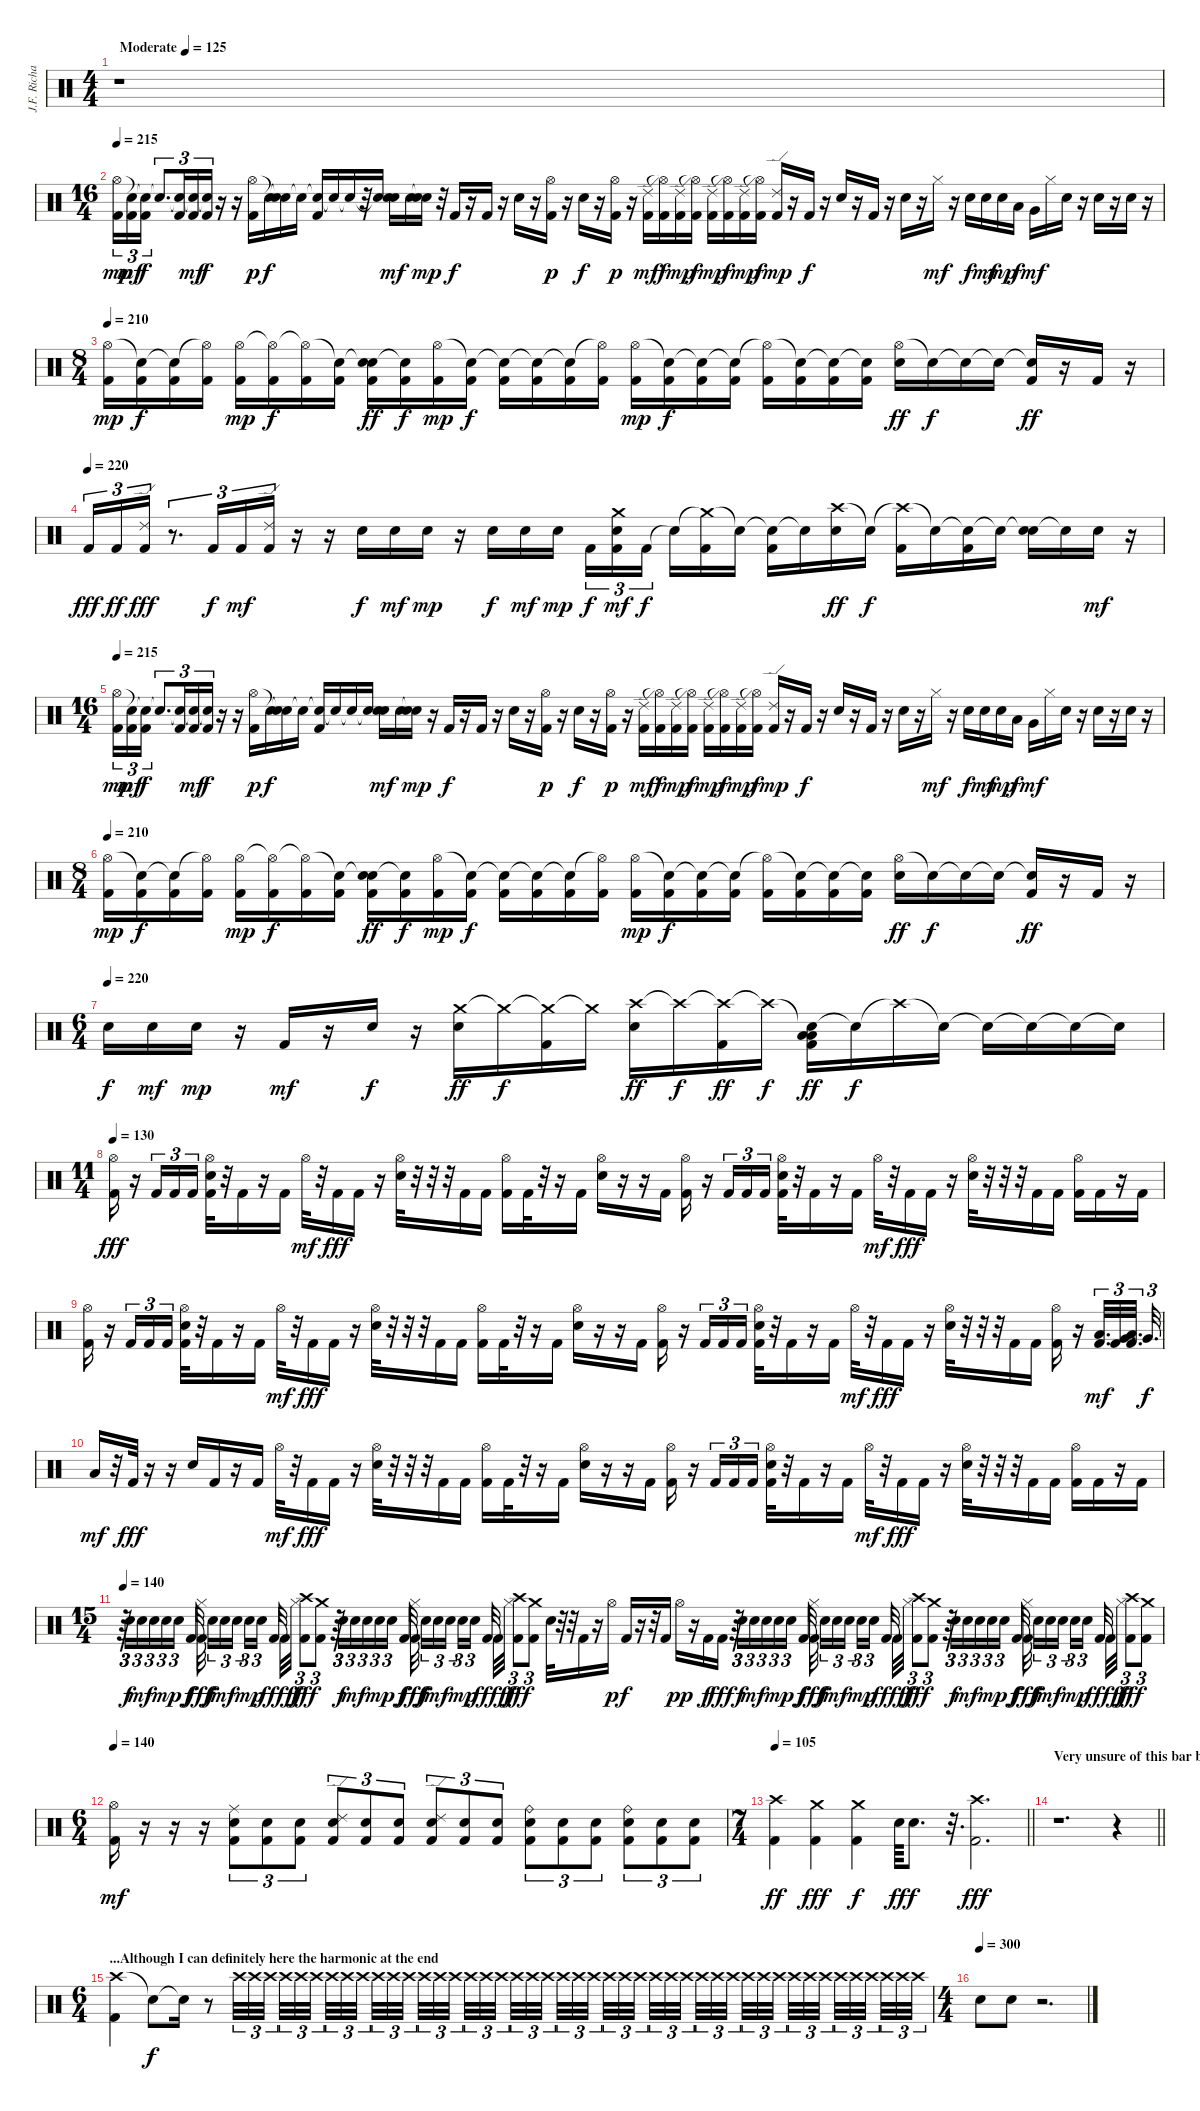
\track ("J.F. Richards" "J.F. Richa") {instrument percussion}
\staff {score}
\articulation defaults
\ts (4 4)
\tempo (125 "Moderate")
\clef neutral
\ks c
r.1{dy mp} |
\ts (16 4)
\tempo 215
("Hi-Hat (open)" "Kick (hit) 2").16{tu (3 2)} ("Snare (hit)"{t} "Kick (hit) 2").16{tu (3 2) dy mf} ("Snare (hit)"{t} "Kick (hit) 2").16{tu (3 2) dy f} "Snare (hit)"{t}.8{d tu (3 2)} ("Snare (hit)"{t} "Kick (hit) 2").16{tu (3 2)} ("Snare (hit)"{t} "Kick (hit) 2").16{tu (3 2) dy mf} ("Snare (hit)"{t} "Kick (hit) 2").16{tu (3 2) dy f} r.16 r.16 ("Hi-Hat (open)" "Kick (hit) 2").16{dy p} "Snare (hit)"{t}.16{dy f} ("Snare (hit)"{t} "Electric Snare (hit)").16 "Snare (hit)"{t}.16 ("Snare (hit)"{t} "Kick (hit) 2").16 "Snare (hit)"{t}.16 "Snare (hit)"{t}.16 r.32 ("Snare (hit)"{t} "Electric Snare (hit)").16 "Electric Snare (hit)".16{dy mf} "Electric Snare (hit)".16 ("Snare (hit)"{t} "Electric Snare (hit)").16{dy mp} r.32 "Kick (hit) 2".16{dy f} r.16 "Kick (hit) 2".16 r.16 "Electric Snare (hit)".16 r.16 ("Hi-Hat (open)" "Kick (hit) 2").16{dy p} r.16 "Electric Snare (hit)".16{dy f} r.16 ("Hi-Hat (open)" "Kick (hit) 2").16{dy p} r.16 ("Ride (edge) 2" "Kick (hit) 2").16{dy mf} ("Hi-Hat (open)"{t} "Kick (hit) 2").16{dy f} ("Ride (edge) 2" "Kick (hit) 2").16{dy mp} ("Hi-Hat (open)"{t} "Kick (hit) 2").16{dy f} ("Ride (edge) 2" "Kick (hit) 2").16{dy mp} ("Hi-Hat (open)"{t} "Kick (hit) 2").16{dy f} ("Ride (edge) 2" "Kick (hit) 2").16{dy mp} ("Hi-Hat (open)"{t} "Kick (hit) 2").16{dy f} ("Ride (edge) 2" "Kick (hit) 2").16{dy mp} r.16 "Kick (hit) 2".16{dy f} r.16 "Electric Snare (hit)".16 r.16 "Kick (hit) 2".16 r.16 "Electric Snare (hit)".16 r.16 "Hi-Hat (closed)".16{dy mf} r.16 "Electric Snare (hit)".16{dy f} "Electric Snare (hit)".16{dy mf} "Electric Snare (hit)".16{dy mp} "Low Tom (hit)".16{dy f} "Very Low Tom (hit)".16{dy mf} "Hi-Hat (closed)".16 "Electric Snare (hit)".16 r.16 "Electric Snare (hit)".16 r.16 "Electric Snare (hit)".16 r.16 |
\ts (8 4)
\tempo 210
("Hi-Hat (open)" "Kick (hit) 2").16{dy mp} ("Snare (hit)"{t} "Kick (hit) 2").16{dy f} ("Snare (hit)"{t} "Kick (hit) 2").16 ("Hi-Hat (open)"{t} "Kick (hit) 2").16 ("Hi-Hat (open)" "Kick (hit) 2").16{dy mp} ("Hi-Hat (open)"{t} "Kick (hit) 2").16{dy f} ("Hi-Hat (open)"{t} "Kick (hit) 2").16 ("Snare (hit)"{t} "Kick (hit) 2").16 ("Snare (hit)"{t} "Electric Snare (hit)" "Kick (hit) 2").16{dy ff} ("Snare (hit)"{t} "Kick (hit) 2").16{dy f} ("Hi-Hat (open)" "Kick (hit) 2").16{dy mp} ("Snare (hit)"{t} "Kick (hit) 2").16{dy f} ("Snare (hit)"{t} "Kick (hit) 2").16 ("Snare (hit)"{t} "Kick (hit) 2").16 ("Snare (hit)"{t} "Kick (hit) 2").16 ("Hi-Hat (open)"{t} "Kick (hit) 2").16 ("Hi-Hat (open)" "Kick (hit) 2").16{dy mp} ("Snare (hit)"{t} "Kick (hit) 2").16{dy f} ("Snare (hit)"{t} "Kick (hit) 2").16 ("Snare (hit)"{t} "Kick (hit) 2").16 ("Hi-Hat (open)"{t} "Kick (hit) 2").16 ("Snare (hit)"{t} "Kick (hit) 2").16 ("Snare (hit)"{t} "Kick (hit) 2").16 ("Snare (hit)"{t} "Kick (hit) 2").16 ("Hi-Hat (open)" "Electric Snare (hit)").16{dy ff} "Snare (hit)"{t}.16{dy f} "Snare (hit)"{t}.16 "Snare (hit)"{t}.16 ("Snare (hit)"{t} "Kick (hit) 2").16{dy ff} r.16 "Kick (hit) 2".16 r.16 |
\tempo (220)
"Kick (hit) 2".16{tu (3 2) dy fff} "Kick (hit) 2".16{tu (3 2) dy ff} ("Ride (edge) 2" "Kick (hit) 2").16{tu (3 2) dy fff} r.8{d tu (3 2)} "Kick (hit) 2".16{tu (3 2) dy f} "Kick (hit) 2".16{tu (3 2) dy mf} ("Ride (edge) 2" "Kick (hit) 2").16{tu (3 2)} r.16 r.16 "Electric Snare (hit)".16{dy f} "Electric Snare (hit)".16{dy mf} "Electric Snare (hit)".16{dy mp} r.16 "Electric Snare (hit)".16{dy f} "Electric Snare (hit)".16{dy mf} "Electric Snare (hit)".16{dy mp beam splitsecondary} "Kick (hit) 2".16{tu (3 2) dy f} ("Crash medium (hit)" "Electric Snare (hit)" "Kick (hit) 2").16{tu (3 2) dy mf} "Kick (hit) 2".16{tu (3 2) dy f beam splitsecondary} "Snare (hit)"{t}.16 ("Crash medium (hit)"{t} "Kick (hit) 2").16 "Snare (hit)"{t}.16 ("Snare (hit)"{t} "Kick (hit) 2").16 "Snare (hit)"{t}.16 ("Crash high (hit)" "Electric Snare (hit)").16{dy ff} "Snare (hit)"{t}.16{dy f} ("Crash high (hit)"{t} "Kick (hit) 2").16 "Snare (hit)"{t}.16 ("Snare (hit)"{t} "Kick (hit) 2").16 "Snare (hit)"{t}.16 ("Snare (hit)"{t} "Electric Snare (hit)").16 "Snare (hit)"{t}.16 "Electric Snare (hit)".16{dy mf} r.16 |
\ts (16 4)
\tempo 215
("Hi-Hat (open)" "Kick (hit) 2").16{tu (3 2) dy mp} ("Snare (hit)"{t} "Kick (hit) 2").16{tu (3 2) dy mf} ("Snare (hit)"{t} "Kick (hit) 2").16{tu (3 2) dy f} "Snare (hit)"{t}.8{d tu (3 2)} ("Snare (hit)"{t} "Kick (hit) 2").16{tu (3 2)} ("Snare (hit)"{t} "Kick (hit) 2").16{tu (3 2) dy mf} ("Snare (hit)"{t} "Kick (hit) 2").16{tu (3 2) dy f} r.16 r.16 ("Hi-Hat (open)" "Kick (hit) 2").16{dy p} "Snare (hit)"{t}.16{dy f} ("Snare (hit)"{t} "Electric Snare (hit)").16 "Snare (hit)"{t}.16 ("Snare (hit)"{t} "Kick (hit) 2").16 "Snare (hit)"{t}.16 "Snare (hit)"{t}.16 ("Snare (hit)"{t} "Electric Snare (hit)").16 "Electric Snare (hit)".16{dy mf} "Electric Snare (hit)".16 ("Snare (hit)"{t} "Electric Snare (hit)").16{dy mp} r.16 "Kick (hit) 2".16{dy f} r.16 "Kick (hit) 2".16 r.16 "Electric Snare (hit)".16 r.16 ("Hi-Hat (open)" "Kick (hit) 2").16{dy p} r.16 "Electric Snare (hit)".16{dy f} r.16 ("Hi-Hat (open)" "Kick (hit) 2").16{dy p} r.16 ("Ride (edge) 2" "Kick (hit) 2").16{dy mf} ("Hi-Hat (open)"{t} "Kick (hit) 2").16{dy f} ("Ride (edge) 2" "Kick (hit) 2").16{dy mp} ("Hi-Hat (open)"{t} "Kick (hit) 2").16{dy f} ("Ride (edge) 2" "Kick (hit) 2").16{dy mp} ("Hi-Hat (open)"{t} "Kick (hit) 2").16{dy f} ("Ride (edge) 2" "Kick (hit) 2").16{dy mp} ("Hi-Hat (open)"{t} "Kick (hit) 2").16{dy f} ("Ride (edge) 2" "Kick (hit) 2").16{dy mp} r.16 "Kick (hit) 2".16{dy f} r.16 "Electric Snare (hit)".16 r.16 "Kick (hit) 2".16 r.16 "Electric Snare (hit)".16 r.16 "Hi-Hat (closed)".16{dy mf} r.16 "Electric Snare (hit)".16{dy f} "Electric Snare (hit)".16{dy mf} "Electric Snare (hit)".16{dy mp} "Low Tom (hit)".16{dy f} "Very Low Tom (hit)".16{dy mf} "Hi-Hat (closed)".16 "Electric Snare (hit)".16 r.16 "Electric Snare (hit)".16 r.16 "Electric Snare (hit)".16 r.16 |
\ts (8 4)
\tempo 210
("Hi-Hat (open)" "Kick (hit) 2").16{dy mp} ("Snare (hit)"{t} "Kick (hit) 2").16{dy f} ("Snare (hit)"{t} "Kick (hit) 2").16 ("Hi-Hat (open)"{t} "Kick (hit) 2").16 ("Hi-Hat (open)" "Kick (hit) 2").16{dy mp} ("Hi-Hat (open)"{t} "Kick (hit) 2").16{dy f} ("Hi-Hat (open)"{t} "Kick (hit) 2").16 ("Snare (hit)"{t} "Kick (hit) 2").16 ("Snare (hit)"{t} "Electric Snare (hit)" "Kick (hit) 2").16{dy ff} ("Snare (hit)"{t} "Kick (hit) 2").16{dy f} ("Hi-Hat (open)" "Kick (hit) 2").16{dy mp} ("Snare (hit)"{t} "Kick (hit) 2").16{dy f} ("Snare (hit)"{t} "Kick (hit) 2").16 ("Snare (hit)"{t} "Kick (hit) 2").16 ("Snare (hit)"{t} "Kick (hit) 2").16 ("Hi-Hat (open)"{t} "Kick (hit) 2").16 ("Hi-Hat (open)" "Kick (hit) 2").16{dy mp} ("Snare (hit)"{t} "Kick (hit) 2").16{dy f} ("Snare (hit)"{t} "Kick (hit) 2").16 ("Snare (hit)"{t} "Kick (hit) 2").16 ("Hi-Hat (open)"{t} "Kick (hit) 2").16 ("Snare (hit)"{t} "Kick (hit) 2").16 ("Snare (hit)"{t} "Kick (hit) 2").16 ("Snare (hit)"{t} "Kick (hit) 2").16 ("Hi-Hat (open)" "Electric Snare (hit)").16{dy ff} "Snare (hit)"{t}.16{dy f} "Snare (hit)"{t}.16 "Snare (hit)"{t}.16 ("Snare (hit)"{t} "Kick (hit) 2").16{dy ff} r.16 "Kick (hit) 2".16 r.16 |
\ts (6 4)
\tempo (220)
"Electric Snare (hit)".16{dy f} "Electric Snare (hit)".16{dy mf} "Electric Snare (hit)".16{dy mp} r.16 "Kick (hit) 2".16{dy mf} r.16 "Electric Snare (hit)".16{dy f} r.16 ("Crash medium (hit)" "Electric Snare (hit)").16{dy ff} "Crash medium (hit)"{t}.16{dy f} ("Crash medium (hit)"{t} "Kick (hit) 2").16 "Crash medium (hit)"{t}.16 ("Crash high (hit)" "Electric Snare (hit)").16{dy ff} "Crash high (hit)"{t}.16{dy f} ("Crash high (hit)"{t} "Kick (hit) 2").16{dy ff} "Crash high (hit)"{t}.16{dy f} ("Snare (hit)"{t} "Low Floor Tom (hit)" "Low Floor Tom (hit)" "Kick (hit) 2").16{dy ff} "Snare (hit)"{t}.16{dy f} "Crash high (hit)"{t}.16 "Snare (hit)"{t}.16 "Snare (hit)"{t}.16 "Snare (hit)"{t}.16 "Snare (hit)"{t}.16 "Snare (hit)"{t}.16 |
\ts (11 4)
\tempo 130
("Hi-Hat (open)" "Kick (hit) 2").16{dy fff} r.16 "Kick (hit) 2".16{tu (3 2)} "Kick (hit) 2".16{tu (3 2)} "Kick (hit) 2".16{tu (3 2)} ("Hi-Hat (open)" "Electric Snare (hit)" "Kick (hit) 2").32 r.32 "Kick (hit) 2".16 r.16 "Kick (hit) 2".16 "Hi-Hat (open)".32{dy mf} r.32 "Kick (hit) 2".16{dy fff} "Kick (hit) 2".16 r.16 ("Hi-Hat (open)" "Electric Snare (hit)").32 r.32 r.32 r.32 "Kick (hit) 2".16 "Kick (hit) 2".16 ("Hi-Hat (open)" "Kick (hit) 2").16 "Kick (hit) 2".32 r.32 r.16 "Kick (hit) 2".16 ("Hi-Hat (open)" "Electric Snare (hit)").16 r.16 r.16 "Kick (hit) 2".16 ("Hi-Hat (open)" "Kick (hit) 2").16 r.16 "Kick (hit) 2".16{tu (3 2)} "Kick (hit) 2".16{tu (3 2)} "Kick (hit) 2".16{tu (3 2)} ("Hi-Hat (open)" "Electric Snare (hit)" "Kick (hit) 2").32 r.32 "Kick (hit) 2".16 r.16 "Kick (hit) 2".16 "Hi-Hat (open)".32{dy mf} r.32 "Kick (hit) 2".16{dy fff} "Kick (hit) 2".16 r.16 ("Hi-Hat (open)" "Electric Snare (hit)").32 r.32 r.32 r.32 "Kick (hit) 2".16 "Kick (hit) 2".16 ("Hi-Hat (open)" "Kick (hit) 2").16 "Kick (hit) 2".16 r.16 "Kick (hit) 2".16 |
("Hi-Hat (open)" "Kick (hit) 2").16 r.16 "Kick (hit) 2".16{tu (3 2)} "Kick (hit) 2".16{tu (3 2)} "Kick (hit) 2".16{tu (3 2)} ("Hi-Hat (open)" "Electric Snare (hit)" "Kick (hit) 2").32 r.32 "Kick (hit) 2".16 r.16 "Kick (hit) 2".16 "Hi-Hat (open)".32{dy mf} r.32 "Kick (hit) 2".16{dy fff} "Kick (hit) 2".16 r.16 ("Hi-Hat (open)" "Electric Snare (hit)").32 r.32 r.32 r.32 "Kick (hit) 2".16 "Kick (hit) 2".16 ("Hi-Hat (open)" "Kick (hit) 2").16 "Kick (hit) 2".32 r.32 r.16 "Kick (hit) 2".16 ("Hi-Hat (open)" "Electric Snare (hit)").16 r.16 r.16 "Kick (hit) 2".16 ("Hi-Hat (open)" "Kick (hit) 2").16 r.16 "Kick (hit) 2".16{tu (3 2)} "Kick (hit) 2".16{tu (3 2)} "Kick (hit) 2".16{tu (3 2)} ("Hi-Hat (open)" "Electric Snare (hit)" "Kick (hit) 2").32 r.32 "Kick (hit) 2".16 r.16 "Kick (hit) 2".16 "Hi-Hat (open)".32{dy mf} r.32 "Kick (hit) 2".16{dy fff} "Kick (hit) 2".16 r.16 ("Hi-Hat (open)" "Electric Snare (hit)").32 r.32 r.32 r.32 "Kick (hit) 2".16 "Kick (hit) 2".16 ("Hi-Hat (open)" "Kick (hit) 2").16 r.16 ("Low Tom (hit)" "Kick (hit) 2").32{d tu (3 2) dy mf} ("Very Low Tom (hit)" "Kick (hit) 2").32{d tu (3 2)} ("Low Floor Tom (hit)" "Kick (hit) 2").32{d tu (3 2)} "Very Low Tom (hit)".32{d tu (3 2) dy f} |
"Low Floor Tom (hit)".16{dy mf} r.32 "Kick (hit) 2".32{dy fff} r.16 r.16 "Electric Snare (hit)".16 "Kick (hit) 2".16 r.16 "Kick (hit) 2".16 "Hi-Hat (open)".32{dy mf} r.32 "Kick (hit) 2".16{dy fff} "Kick (hit) 2".16 r.16 ("Hi-Hat (open)" "Electric Snare (hit)").32 r.32 r.32 r.32 "Kick (hit) 2".16 "Kick (hit) 2".16 ("Hi-Hat (open)" "Kick (hit) 2").16 "Kick (hit) 2".32 r.32 r.16 "Kick (hit) 2".16 ("Hi-Hat (open)" "Electric Snare (hit)").16 r.16 r.16 "Kick (hit) 2".16 ("Hi-Hat (open)" "Kick (hit) 2").16 r.16 "Kick (hit) 2".16{tu (3 2)} "Kick (hit) 2".16{tu (3 2)} "Kick (hit) 2".16{tu (3 2)} ("Hi-Hat (open)" "Electric Snare (hit)" "Kick (hit) 2").32 r.32 "Kick (hit) 2".16 r.16 "Kick (hit) 2".16 "Hi-Hat (open)".32{dy mf} r.32 "Kick (hit) 2".16{dy fff} "Kick (hit) 2".16 r.16 ("Hi-Hat (open)" "Electric Snare (hit)").32 r.32 r.32 r.32 "Kick (hit) 2".16 "Kick (hit) 2".16 ("Hi-Hat (open)" "Kick (hit) 2").16 "Kick (hit) 2".16 r.16 "Kick (hit) 2".16 |
\ts (15 4)
\tempo 140
r.64{tu (3 2)} "Electric Snare (hit)".16{tu (3 2) dy f} "Electric Snare (hit)".16{tu (3 2) dy mf} "Electric Snare (hit)".16{tu (3 2)} "Electric Snare (hit)".16{tu (3 2) dy mp} "Electric Snare (hit)".16{tu (3 2) beam splitsecondary} "Kick (hit) 2".32{dy f} ("Hi-Hat (closed)" "Kick (hit) 2").32{dy fff beam splitsecondary} "Electric Snare (hit)".16{tu (3 2) dy f} "Electric Snare (hit)".16{tu (3 2) dy mf} "Electric Snare (hit)".16{tu (3 2) beam splitsecondary} "Electric Snare (hit)".16{tu (3 2) dy mp} "Electric Snare (hit)".16{tu (3 2) beam splitsecondary} "Kick (hit) 2".32{dy fff} "Kick (hit) 2".32 "Hi-Hat (closed)".32{dy ff} ("Crash high (hit)" "Kick (hit) 2").8{tu (3 2) dy fff} ("Crash medium (hit)" "Kick (hit) 2").8{tu (3 2)} r.64{tu (3 2)} "Electric Snare (hit)".16{tu (3 2) dy f} "Electric Snare (hit)".16{tu (3 2) dy mf} "Electric Snare (hit)".16{tu (3 2)} "Electric Snare (hit)".16{tu (3 2) dy mp} "Electric Snare (hit)".16{tu (3 2) beam splitsecondary} "Kick (hit) 2".32{dy f} ("Hi-Hat (closed)" "Kick (hit) 2").32{dy fff beam splitsecondary} "Electric Snare (hit)".16{tu (3 2) dy f} "Electric Snare (hit)".16{tu (3 2) dy mf} "Electric Snare (hit)".16{tu (3 2) beam splitsecondary} "Electric Snare (hit)".16{tu (3 2) dy mp} "Electric Snare (hit)".16{tu (3 2) beam splitsecondary} "Kick (hit) 2".32{dy fff} "Kick (hit) 2".32 "Hi-Hat (closed)".32{dy ff} ("Crash high (hit)" "Kick (hit) 2").8{tu (3 2) dy fff} ("Crash medium (hit)" "Kick (hit) 2").8{tu (3 2)} "Electric Snare (hit)".32 r.32 r.32 "Kick (hit) 2".16 r.16 "Hi-Hat (open)".16{dy p} "Kick (hit) 2".16{dy f} r.16 r.32 "Kick (hit) 2".16 "Hi-Hat (open)".16{dy pp} r.16 "Kick (hit) 2".16{dy f} "Kick (hit) 2".16{dy fff} r.64{tu (3 2)} "Electric Snare (hit)".16{tu (3 2) dy f} "Electric Snare (hit)".16{tu (3 2) dy mf} "Electric Snare (hit)".16{tu (3 2)} "Electric Snare (hit)".16{tu (3 2) dy mp} "Electric Snare (hit)".16{tu (3 2) beam splitsecondary} "Kick (hit) 2".32{dy f} ("Hi-Hat (closed)" "Kick (hit) 2").32{dy fff beam splitsecondary} "Electric Snare (hit)".16{tu (3 2) dy f} "Electric Snare (hit)".16{tu (3 2) dy mf} "Electric Snare (hit)".16{tu (3 2) beam splitsecondary} "Electric Snare (hit)".16{tu (3 2) dy mp} "Electric Snare (hit)".16{tu (3 2) beam splitsecondary} "Kick (hit) 2".32{dy fff} "Kick (hit) 2".32 "Hi-Hat (closed)".32{dy ff} ("Crash high (hit)" "Kick (hit) 2").8{tu (3 2) dy fff} ("Crash medium (hit)" "Kick (hit) 2").8{tu (3 2)} r.64{tu (3 2)} "Electric Snare (hit)".16{tu (3 2) dy f} "Electric Snare (hit)".16{tu (3 2) dy mf} "Electric Snare (hit)".16{tu (3 2)} "Electric Snare (hit)".16{tu (3 2) dy mp} "Electric Snare (hit)".16{tu (3 2) beam splitsecondary} "Kick (hit) 2".32{dy f} ("Hi-Hat (closed)" "Kick (hit) 2").32{dy fff beam splitsecondary} "Electric Snare (hit)".16{tu (3 2) dy f} "Electric Snare (hit)".16{tu (3 2) dy mf} "Electric Snare (hit)".16{tu (3 2) beam splitsecondary} "Electric Snare (hit)".16{tu (3 2) dy mp} "Electric Snare (hit)".16{tu (3 2) beam splitsecondary} "Kick (hit) 2".32{dy fff} "Kick (hit) 2".32 "Hi-Hat (closed)".32{dy ff} ("Crash high (hit)" "Kick (hit) 2").8{tu (3 2) dy fff} ("Crash medium (hit)" "Kick (hit) 2").8{tu (3 2)} |
\ts (6 4)
\tempo 140
("Hi-Hat (open)" "Kick (hit) 2").16{dy mf} r.16 r.16 r.16 ("Ride (middle)" "Electric Snare (hit)" "Kick (hit) 2").8{tu (3 2)} ("Electric Snare (hit)" "Kick (hit) 2").8{tu (3 2)} ("Electric Snare (hit)" "Kick (hit) 2").8{tu (3 2)} ("Ride (edge) 2" "Electric Snare (hit)" "Kick (hit) 2").8{tu (3 2)} ("Electric Snare (hit)" "Kick (hit) 2").8{tu (3 2)} ("Electric Snare (hit)" "Kick (hit) 2").8{tu (3 2)} ("Ride (edge) 2" "Electric Snare (hit)" "Kick (hit) 2").8{tu (3 2)} ("Electric Snare (hit)" "Kick (hit) 2").8{tu (3 2)} ("Electric Snare (hit)" "Kick (hit) 2").8{tu (3 2)} ("Ride (bell)" "Electric Snare (hit)" "Kick (hit) 2").8{tu (3 2)} ("Electric Snare (hit)" "Kick (hit) 2").8{tu (3 2)} ("Electric Snare (hit)" "Kick (hit) 2").8{tu (3 2)} ("Ride (bell)" "Electric Snare (hit)" "Kick (hit) 2").8{tu (3 2)} ("Electric Snare (hit)" "Kick (hit) 2").8{tu (3 2)} ("Electric Snare (hit)" "Kick (hit) 2").8{tu (3 2)} |
\ts (7 4)
\tempo 105
\barLineRight lightlight
("Crash high (hit)" "Kick (hit) 2").4{dy ff} ("Crash medium (hit)" "Kick (hit) 2").4{dy fff} ("Crash medium (hit)" "Kick (hit) 2").4{dy f} "Electric Snare (hit)".64{dy ff} "Electric Snare (hit)".8{d dy f} r.32{d} ("Crash high (hit)" "Kick (hit) 2").2{d dy fff} |
\section ("" "Very unsure of this bar because of LoFi effect on recording")
\barLineRight lightlight
r.1{d} r.4 |
\ts (6 4)
\section ("" "...Although I can definitely here the harmonic at the end")
("Crash high (hit)" "Kick (hit) 2").4 "Snare (hit)"{t}.8{dy f volume 0} "Snare (hit)"{t}.16 r.8{volume 0} "Crash high (hit)".32{tu (3 2)} "Crash high (hit)".32{tu (3 2)} "Crash high (hit)".32{tu (3 2) beam splitsecondary} "Crash high (hit)".32{tu (3 2)} "Crash high (hit)".32{tu (3 2)} "Crash high (hit)".32{tu (3 2) beam splitsecondary} "Crash high (hit)".32{tu (3 2)} "Crash high (hit)".32{tu (3 2) volume 16} "Crash high (hit)".32{tu (3 2)} "Crash high (hit)".32{tu (3 2)} "Crash high (hit)".32{tu (3 2)} "Crash high (hit)".32{tu (3 2) beam splitsecondary} "Crash high (hit)".32{tu (3 2)} "Crash high (hit)".32{tu (3 2)} "Crash high (hit)".32{tu (3 2) beam splitsecondary} "Crash high (hit)".32{tu (3 2)} "Crash high (hit)".32{tu (3 2)} "Crash high (hit)".32{tu (3 2) beam splitsecondary} "Crash high (hit)".32{tu (3 2)} "Crash high (hit)".32{tu (3 2)} "Crash high (hit)".32{tu (3 2) beam splitsecondary} "Crash high (hit)".32{tu (3 2)} "Crash high (hit)".32{tu (3 2)} "Crash high (hit)".32{tu (3 2) beam splitsecondary} "Crash high (hit)".32{tu (3 2)} "Crash high (hit)".32{tu (3 2)} "Crash high (hit)".32{tu (3 2) beam splitsecondary} "Crash high (hit)".32{tu (3 2)} "Crash high (hit)".32{tu (3 2)} "Crash high (hit)".32{tu (3 2) beam splitsecondary} "Crash high (hit)".32{tu (3 2)} "Crash high (hit)".32{tu (3 2)} "Crash high (hit)".32{tu (3 2) beam splitsecondary} "Crash high (hit)".32{tu (3 2)} "Crash high (hit)".32{tu (3 2)} "Crash high (hit)".32{tu (3 2) beam splitsecondary} "Crash high (hit)".32{tu (3 2)} "Crash high (hit)".32{tu (3 2)} "Crash high (hit)".32{tu (3 2) beam splitsecondary} "Crash high (hit)".32{tu (3 2)} "Crash high (hit)".32{tu (3 2)} "Crash high (hit)".32{tu (3 2) beam splitsecondary} "Crash high (hit)".32{tu (3 2)} "Crash high (hit)".32{tu (3 2)} "Crash high (hit)".32{tu (3 2)} |
\ts (4 4)
\tempo (300)
"Electric Snare (hit)".8 "Electric Snare (hit)".8 r.2{d}
